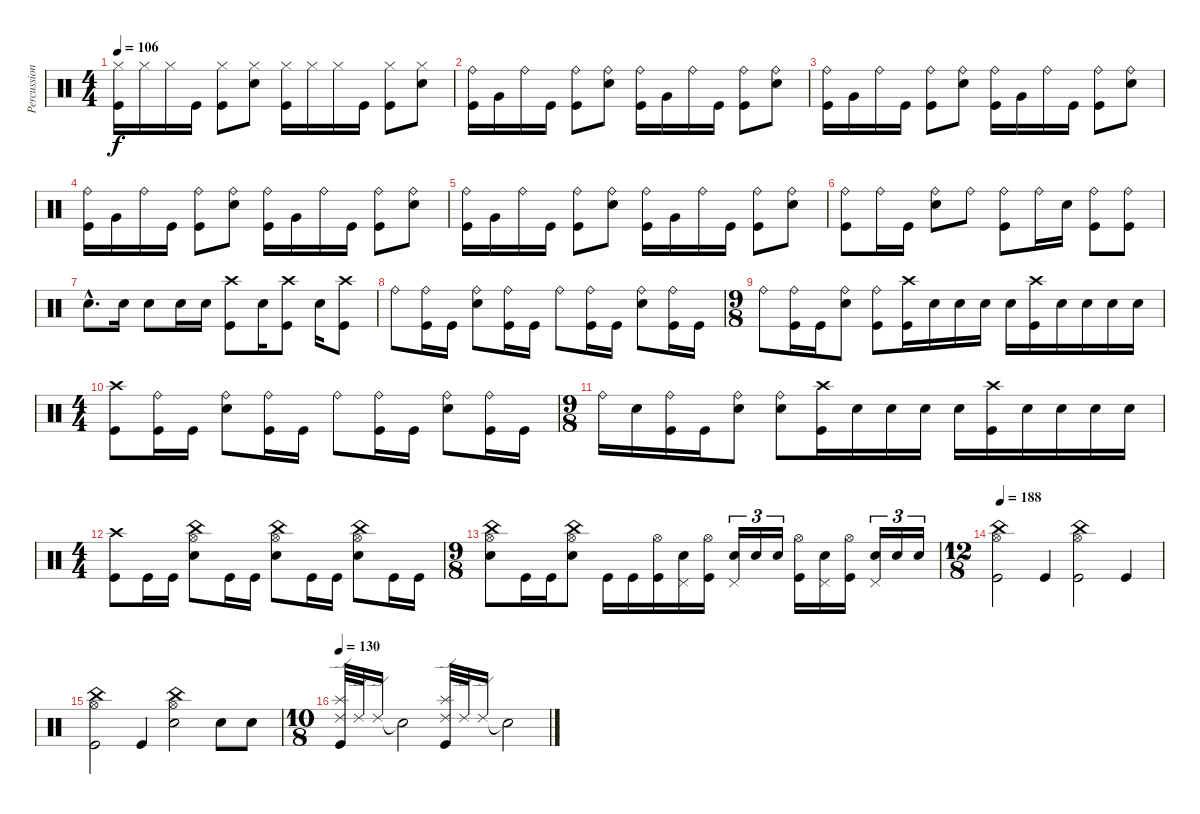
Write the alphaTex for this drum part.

\track ("Percussion" "Percussion") {instrument percussion}
\staff {score}
\articulation defaults
\ts (4 4)
\tempo 106
\clef neutral
\ks c
("Kick (hit)" "Hi-Hat (closed)").16{dy f} "Hi-Hat (closed)".16 "Hi-Hat (closed)".16 "Kick (hit)".16 ("Kick (hit)" "Hi-Hat (closed)").8 ("Electric Snare (hit)" "Hi-Hat (closed)").8 ("Kick (hit)" "Hi-Hat (closed)").16 "Hi-Hat (closed)".16 "Hi-Hat (closed)".16 "Kick (hit)".16 ("Kick (hit)" "Hi-Hat (closed)").8 ("Electric Snare (hit)" "Hi-Hat (closed)").8 |
("Ride (bell)" "Kick (hit)").16 "Very Low Tom (hit)".16 "Ride (bell)".16 "Kick (hit)".16 ("Ride (bell)" "Kick (hit)").8 ("Ride (bell)" "Electric Snare (hit)").8 ("Ride (bell)" "Kick (hit)").16 "Very Low Tom (hit)".16 "Ride (bell)".16 "Kick (hit)".16 ("Ride (bell)" "Kick (hit)").8 ("Ride (bell)" "Electric Snare (hit)").8 |
("Ride (bell)" "Kick (hit)").16 "Very Low Tom (hit)".16 "Ride (bell)".16 "Kick (hit)".16 ("Ride (bell)" "Kick (hit)").8 ("Ride (bell)" "Electric Snare (hit)").8 ("Ride (bell)" "Kick (hit)").16 "Very Low Tom (hit)".16 "Ride (bell)".16 "Kick (hit)".16 ("Ride (bell)" "Kick (hit)").8 ("Ride (bell)" "Electric Snare (hit)").8 |
("Ride (bell)" "Kick (hit)").16 "Very Low Tom (hit)".16 "Ride (bell)".16 "Kick (hit)".16 ("Ride (bell)" "Kick (hit)").8 ("Ride (bell)" "Electric Snare (hit)").8 ("Ride (bell)" "Kick (hit)").16 "Very Low Tom (hit)".16 "Ride (bell)".16 "Kick (hit)".16 ("Ride (bell)" "Kick (hit)").8 ("Ride (bell)" "Electric Snare (hit)").8 |
("Ride (bell)" "Kick (hit)").16 "Very Low Tom (hit)".16 "Ride (bell)".16 "Kick (hit)".16 ("Ride (bell)" "Kick (hit)").8 ("Ride (bell)" "Electric Snare (hit)").8 ("Ride (bell)" "Kick (hit)").16 "Very Low Tom (hit)".16 "Ride (bell)".16 "Kick (hit)".16 ("Ride (bell)" "Kick (hit)").8 ("Ride (bell)" "Electric Snare (hit)").8 |
("Ride (bell)" "Kick (hit)").8 "Ride (bell)".16 "Kick (hit)".16 ("Ride (bell)" "Electric Snare (hit)").8 "Ride (bell)".8 ("Ride (bell)" "Kick (hit)").8 "Ride (bell)".16 "Electric Snare (hit)".16 ("Ride (bell)" "Kick (hit)").8 ("Ride (bell)" "Kick (hit)").8 |
"Snare (hit) 2"{hac}.8{d} "Snare (hit) 2".16 "Snare (hit) 2".8 "Snare (hit) 2".16 "Snare (hit) 2".16 ("Kick (hit)" "Crash high (hit)").8 "Electric Snare (hit)".16 ("Kick (hit)" "Crash high (hit)").8 "Electric Snare (hit)".16 ("Kick (hit)" "Crash high (hit)").8 |
"Ride (bell)".8 ("Ride (bell)" "Kick (hit)").16 "Kick (hit)".16 ("Ride (bell)" "Snare (hit) 2").8 ("Ride (bell)" "Kick (hit)").16 "Kick (hit)".16 "Ride (bell)".8 ("Ride (bell)" "Kick (hit)").16 "Kick (hit)".16 ("Ride (bell)" "Snare (hit) 2").8 ("Ride (bell)" "Kick (hit)").16 "Kick (hit)".16 |
\ts (9 8)
"Ride (bell)".8 ("Ride (bell)" "Kick (hit)").16 "Kick (hit)".16 ("Snare (hit) 2" "Ride (bell)").8 ("Kick (hit)" "Ride (bell)").8 ("Kick (hit)" "Crash high (hit)").16 "Snare (hit) 2".16 "Snare (hit) 2".16 "Snare (hit) 2".16 "Snare (hit) 2".16 ("Kick (hit)" "Crash high (hit)").16 "Snare (hit) 2".16 "Snare (hit) 2".16 "Snare (hit) 2".16 "Snare (hit) 2".16 |
\ts (4 4)
("Kick (hit)" "Crash high (hit)").8 ("Ride (bell)" "Kick (hit)").16 "Kick (hit)".16 ("Ride (bell)" "Snare (hit) 2").8 ("Ride (bell)" "Kick (hit)").16 "Kick (hit)".16 "Ride (bell)".8 ("Ride (bell)" "Kick (hit)").16 "Kick (hit)".16 ("Ride (bell)" "Snare (hit) 2").8 ("Ride (bell)" "Kick (hit)").16 "Kick (hit)".16 |
\ts (9 8)
"Ride (bell)".16 "Snare (hit) 2".16 ("Ride (bell)" "Kick (hit)").16 "Kick (hit)".16 ("Snare (hit) 2" "Ride (bell)").8 ("Snare (hit) 2" "Ride (bell)").8 ("Kick (hit)" "Crash high (hit)").16 "Snare (hit) 2".16 "Snare (hit) 2".16 "Snare (hit) 2".16 "Snare (hit) 2".16 ("Kick (hit)" "Crash high (hit)").16 "Snare (hit) 2".16 "Snare (hit) 2".16 "Snare (hit) 2".16 "Snare (hit) 2".16 |
\ts (4 4)
("Crash high (hit)" "Kick (hit)").8 "Kick (hit)".16 "Kick (hit)".16 ("Hi-Hat (open)" "China (hit)" "Snare (hit) 2").8 "Kick (hit)".16 "Kick (hit)".16 ("Hi-Hat (open)" "China (hit)" "Snare (hit) 2").8 "Kick (hit)".16 "Kick (hit)".16 ("Hi-Hat (open)" "China (hit)" "Snare (hit) 2").8 "Kick (hit)".16 "Kick (hit)".16 |
\ts (9 8)
("Snare (hit) 2" "Hi-Hat (open)" "China (hit)").8 "Kick (hit)".16 "Kick (hit)".16 ("Snare (hit) 2" "Hi-Hat (open)" "China (hit)").8 "Kick (hit)".16 "Kick (hit)".16 ("Hi-Hat (open)" "Kick (hit)").16 ("Electric Snare (hit)" "Pedal Hi-Hat (hit)").16 ("Hi-Hat (open)" "Kick (hit)").16 ("Electric Snare (hit)" "Pedal Hi-Hat (hit)").16{tu (3 2)} "Electric Snare (hit)".16{tu (3 2)} "Electric Snare (hit)".16{tu (3 2)} ("Hi-Hat (open)" "Kick (hit)").16 ("Electric Snare (hit)" "Pedal Hi-Hat (hit)").16 ("Hi-Hat (open)" "Kick (hit)").16 ("Electric Snare (hit)" "Pedal Hi-Hat (hit)").16{tu (3 2)} "Electric Snare (hit)".16{tu (3 2)} "Electric Snare (hit)".16{tu (3 2)} |
\ts (12 8)
\tempo 188
("Kick (hit)" "Hi-Hat (open)" "China (hit)").2 "Kick (hit)".4 ("Kick (hit)" "Hi-Hat (open)" "China (hit)").2 "Kick (hit)".4 |
("Kick (hit)" "Hi-Hat (open)" "China (hit)").2 "Kick (hit)".4 ("Snare (hit) 2" "Hi-Hat (open)" "China (hit)").2 "Snare (hit) 2".8 "Snare (hit) 2".8 |
\ts (10 8)
\tempo 130
("Splash (hit)" "Ride (edge) 2" "Kick (hit)").32 "Ride (edge) 2".32 "Ride (edge) 2".16 "Snare (hit)"{t}.2 ("Splash (hit)" "Ride (edge) 2" "Kick (hit)").32 "Ride (edge) 2".32 "Ride (edge) 2".16 "Snare (hit)"{t}.2
